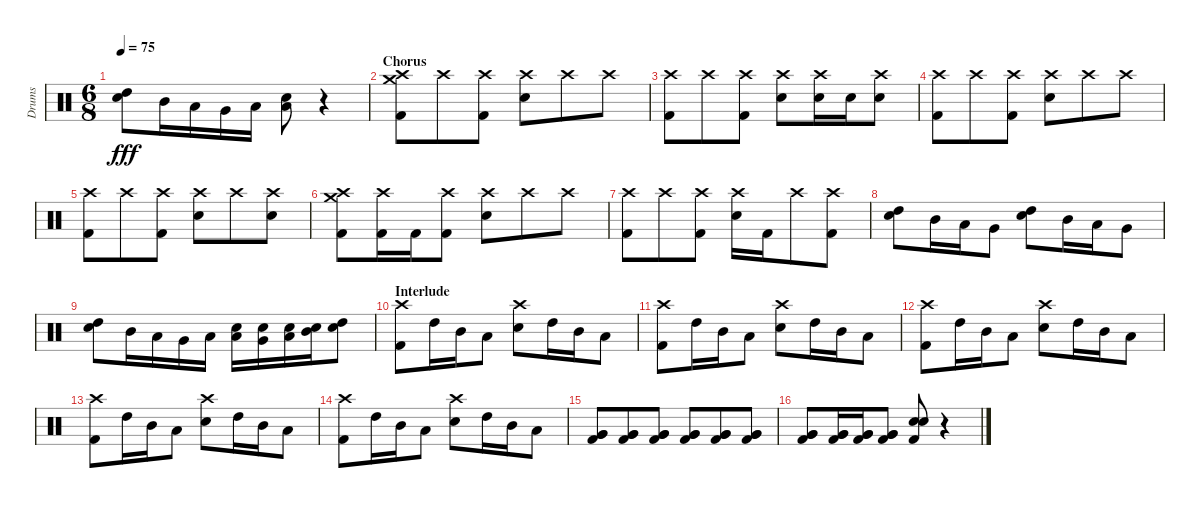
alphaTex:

\track ("Drums" "Drums") {instrument percussion}
\staff {score}
\articulation defaults
\ts (6 8)
\tempo 75
\clef neutral
\ks c
("High Tom (hit)" "Electric Snare (hit)").8{dy fff} "Mid Tom (hit)".16 "Low Tom (hit)".16 "Very Low Tom (hit)".16 "Low Floor Tom (hit)".16 ("Low Tom (hit)" "Electric Snare (hit)").8 r.4 |
\section ("" "Chorus")
("Crash high (hit)" "Crash medium (hit)" "Kick (hit) 2").8 "Crash high (hit)".8 ("Crash high (hit)" "Kick (hit) 2").8 ("Crash high (hit)" "Electric Snare (hit)").8 "Crash high (hit)".8 "Crash high (hit)".8 |
("Crash high (hit)" "Kick (hit) 2").8 "Crash high (hit)".8 ("Crash high (hit)" "Kick (hit) 2").8 ("Crash high (hit)" "Electric Snare (hit)").8 ("Crash high (hit)" "Electric Snare (hit)").16 "Electric Snare (hit)".16 ("Crash high (hit)" "Electric Snare (hit)").8 |
("Crash high (hit)" "Kick (hit) 2").8 "Crash high (hit)".8 ("Crash high (hit)" "Kick (hit) 2").8 ("Crash high (hit)" "Electric Snare (hit)").8 "Crash high (hit)".8 "Crash high (hit)".8 |
("Crash high (hit)" "Kick (hit) 2").8 "Crash high (hit)".8 ("Crash high (hit)" "Kick (hit) 2").8 ("Crash high (hit)" "Electric Snare (hit)").8 "Crash high (hit)".8 ("Crash high (hit)" "Electric Snare (hit)").8 |
("Crash high (hit)" "Crash medium (hit)" "Kick (hit) 2").8 ("Crash high (hit)" "Kick (hit) 2").16 "Kick (hit) 2".16 ("Crash high (hit)" "Kick (hit) 2").8 ("Crash high (hit)" "Electric Snare (hit)").8 "Crash high (hit)".8 "Crash high (hit)".8 |
("Crash high (hit)" "Kick (hit) 2").8 "Crash high (hit)".8 ("Crash high (hit)" "Kick (hit) 2").8 ("Crash high (hit)" "Electric Snare (hit)").16 "Kick (hit) 2".16 "Crash high (hit)".8 ("Crash high (hit)" "Kick (hit) 2").8 |
("High Tom (hit)" "Electric Snare (hit)").8 "Mid Tom (hit)".16 "Low Tom (hit)".16 "Very Low Tom (hit)".8 ("High Tom (hit)" "Electric Snare (hit)").8 "Mid Tom (hit)".16 "Low Tom (hit)".16 "Very Low Tom (hit)".8 |
("High Tom (hit)" "Electric Snare (hit)").8 "Mid Tom (hit)".16 "Low Tom (hit)".16 "Very Low Tom (hit)".16 "Low Floor Tom (hit)".16 ("Low Floor Tom (hit)" "Electric Snare (hit)").16 ("Very Low Tom (hit)" "Electric Snare (hit)").16 ("Low Tom (hit)" "Electric Snare (hit)").16 ("Mid Tom (hit)" "Electric Snare (hit)").16 ("High Tom (hit)" "Electric Snare (hit)").8 |
\section ("" "Interlude")
("Crash high (hit)" "Kick (hit) 2").8 "High Tom (hit)".16 "Mid Tom (hit)".16 "Low Tom (hit)".8 ("Crash high (hit)" "Electric Snare (hit)").8 "High Tom (hit)".16 "Mid Tom (hit)".16 "Low Tom (hit)".8 |
("Crash high (hit)" "Kick (hit) 2").8 "High Tom (hit)".16 "Mid Tom (hit)".16 "Low Tom (hit)".8 ("Crash high (hit)" "Electric Snare (hit)").8 "High Tom (hit)".16 "Mid Tom (hit)".16 "Low Tom (hit)".8 |
("Crash high (hit)" "Kick (hit) 2").8 "High Tom (hit)".16 "Mid Tom (hit)".16 "Low Tom (hit)".8 ("Crash high (hit)" "Electric Snare (hit)").8 "High Tom (hit)".16 "Mid Tom (hit)".16 "Low Tom (hit)".8 |
("Crash high (hit)" "Kick (hit) 2").8 "High Tom (hit)".16 "Mid Tom (hit)".16 "Low Tom (hit)".8 ("Crash high (hit)" "Electric Snare (hit)").8 "High Tom (hit)".16 "Mid Tom (hit)".16 "Low Tom (hit)".8 |
("Crash high (hit)" "Kick (hit) 2").8 "High Tom (hit)".16 "Mid Tom (hit)".16 "Low Tom (hit)".8 ("Crash high (hit)" "Electric Snare (hit)").8 "High Tom (hit)".16 "Mid Tom (hit)".16 "Low Tom (hit)".8 |
("Very Low Tom (hit)" "Very Low Tom (hit)" "Kick (hit) 2").8 ("Very Low Tom (hit)" "Very Low Tom (hit)" "Kick (hit) 2").8 ("Very Low Tom (hit)" "Very Low Tom (hit)" "Kick (hit) 2").8 ("Very Low Tom (hit)" "Very Low Tom (hit)" "Kick (hit) 2").8 ("Very Low Tom (hit)" "Very Low Tom (hit)" "Kick (hit) 2").8 ("Very Low Tom (hit)" "Very Low Tom (hit)" "Kick (hit) 2").8 |
("Very Low Tom (hit)" "Very Low Tom (hit)" "Kick (hit) 2").8 ("Very Low Tom (hit)" "Very Low Tom (hit)" "Kick (hit) 2").16 ("Very Low Tom (hit)" "Very Low Tom (hit)" "Kick (hit) 2").16 ("Very Low Tom (hit)" "Very Low Tom (hit)" "Kick (hit) 2").8 ("Electric Snare (hit)" "Electric Snare (hit)" "Kick (hit) 2").8 r.4
